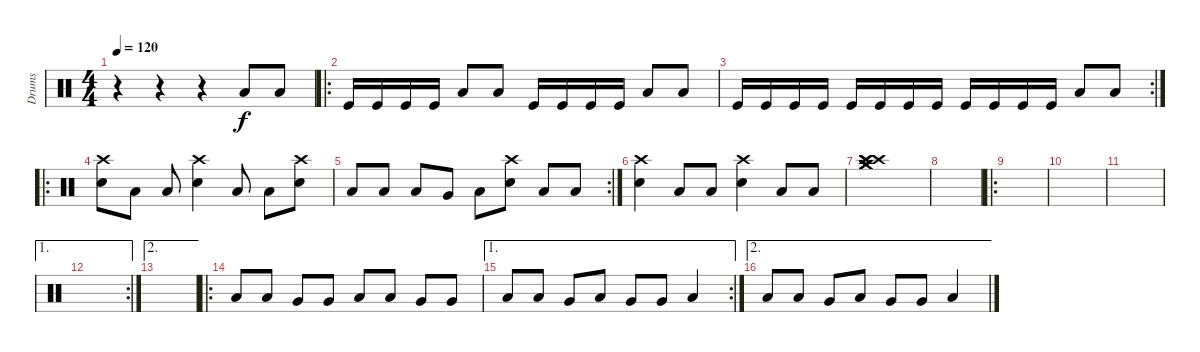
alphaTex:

\track ("Drums" "Drums") {instrument percussion}
\staff {score}
\articulation defaults
\ts (4 4)
\tempo 120
\clef neutral
\ks c
r.4{dy f} r.4 r.4 "Low Tom (hit)".8 "Low Tom (hit)".8 |
\ro "Kick (hit)".16 "Kick (hit)".16 "Kick (hit)".16 "Kick (hit)".16 "Low Tom (hit)".8 "Low Tom (hit)".8 "Kick (hit)".16 "Kick (hit)".16 "Kick (hit)".16 "Kick (hit)".16 "Low Tom (hit)".8 "Low Tom (hit)".8
|
\rc 2 "Kick (hit)".16 "Kick (hit)".16 "Kick (hit)".16 "Kick (hit)".16 "Kick (hit)".16 "Kick (hit)".16 "Kick (hit)".16 "Kick (hit)".16 "Kick (hit)".16 "Kick (hit)".16 "Kick (hit)".16 "Kick (hit)".16 "Low Tom (hit)".8 "Low Tom (hit)".8
|
\ro
("Crash high (hit)" "Snare (hit) 2").8 "Low Tom (hit)".8 "Low Tom (hit)".8 ("Crash high (hit)" "Snare (hit) 2").4 "Low Tom (hit)".8 "Low Tom (hit)".8 ("Crash high (hit)" "Snare (hit) 2").8 |
\rc 2 "Low Tom (hit)".8 "Low Tom (hit)".8 "Low Tom (hit)".8 "Very Low Tom (hit)".8 "Low Floor Tom (hit)".8
("Crash high (hit)" "Snare (hit) 2").8 "Low Tom (hit)".8 "Low Tom (hit)".8 |
("Crash high (hit)" "Snare (hit) 2").4 "Low Tom (hit)".8 "Low Tom (hit)".8 ("Crash high (hit)" "Snare (hit) 2").4 "Low Tom (hit)".8 "Low Tom (hit)".8 |
("Crash high (hit)" "Crash high (hit)" "Crash high (hit)" "Crash medium (hit)" "Crash medium (hit)" "Crash medium (hit)").1 |
|
\ro
|
|
|
\ae 1
\rc 2
|
\ae 2
|
\ro "Low Tom (hit)".8 "Low Tom (hit)".8 "Very Low Tom (hit)".8 "Very Low Tom (hit)".8 "Low Tom (hit)".8 "Low Tom (hit)".8 "Very Low Tom (hit)".8 "Very Low Tom (hit)".8
|
\ae 1
\rc 2 "Low Tom (hit)".8 "Low Tom (hit)".8 "Very Low Tom (hit)".8 "Low Tom (hit)".8 "Very Low Tom (hit)".8 "Very Low Tom (hit)".8 "Low Tom (hit)".4
|
\ae 2 "Low Tom (hit)".8 "Low Tom (hit)".8 "Very Low Tom (hit)".8 "Low Tom (hit)".8 "Very Low Tom (hit)".8 "Very Low Tom (hit)".8 "Low Tom (hit)".4
